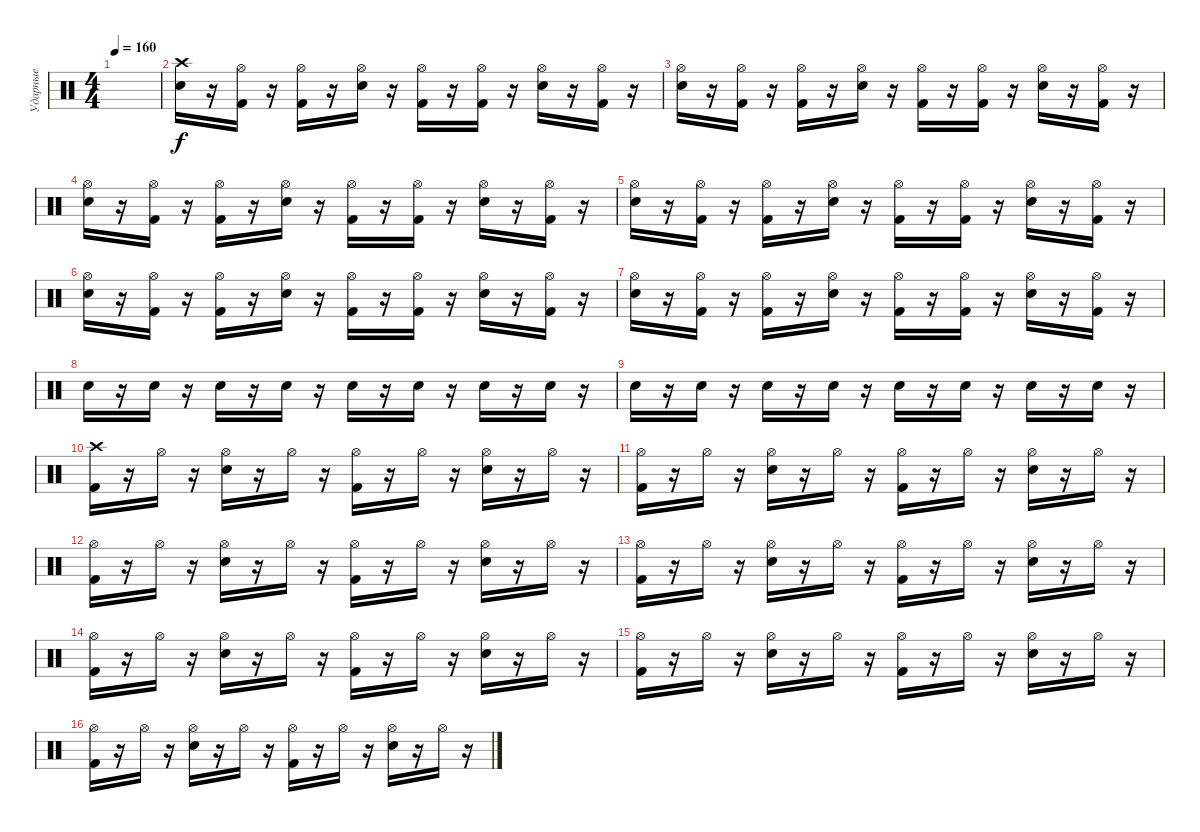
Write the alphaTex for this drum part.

\track ("Ударные" "Ударные") {instrument percussion}
\staff {score}
\articulation defaults
\ts (4 4)
\tempo 160
\clef neutral
\ks c
|
("Crash high (hit)" "Electric Snare (hit)").16 r.16 ("Hi-Hat (open)" "Kick (hit) 2").16 r.16 ("Hi-Hat (open)" "Kick (hit) 2").16 r.16 ("Hi-Hat (open)" "Electric Snare (hit)").16 r.16 ("Hi-Hat (open)" "Kick (hit) 2").16 r.16 ("Hi-Hat (open)" "Kick (hit) 2").16 r.16 ("Hi-Hat (open)" "Electric Snare (hit)").16 r.16 ("Hi-Hat (open)" "Kick (hit) 2").16 r.16 |
("Hi-Hat (open)" "Electric Snare (hit)").16 r.16 ("Hi-Hat (open)" "Kick (hit) 2").16 r.16 ("Hi-Hat (open)" "Kick (hit) 2").16 r.16 ("Hi-Hat (open)" "Electric Snare (hit)").16 r.16 ("Hi-Hat (open)" "Kick (hit) 2").16 r.16 ("Hi-Hat (open)" "Kick (hit) 2").16 r.16 ("Hi-Hat (open)" "Electric Snare (hit)").16 r.16 ("Hi-Hat (open)" "Kick (hit) 2").16 r.16 |
("Hi-Hat (open)" "Electric Snare (hit)").16 r.16 ("Hi-Hat (open)" "Kick (hit) 2").16 r.16 ("Hi-Hat (open)" "Kick (hit) 2").16 r.16 ("Hi-Hat (open)" "Electric Snare (hit)").16 r.16 ("Hi-Hat (open)" "Kick (hit) 2").16 r.16 ("Hi-Hat (open)" "Kick (hit) 2").16 r.16 ("Hi-Hat (open)" "Electric Snare (hit)").16 r.16 ("Hi-Hat (open)" "Kick (hit) 2").16 r.16 |
("Hi-Hat (open)" "Electric Snare (hit)").16 r.16 ("Hi-Hat (open)" "Kick (hit) 2").16 r.16 ("Hi-Hat (open)" "Kick (hit) 2").16 r.16 ("Hi-Hat (open)" "Electric Snare (hit)").16 r.16 ("Hi-Hat (open)" "Kick (hit) 2").16 r.16 ("Hi-Hat (open)" "Kick (hit) 2").16 r.16 ("Hi-Hat (open)" "Electric Snare (hit)").16 r.16 ("Hi-Hat (open)" "Kick (hit) 2").16 r.16 |
("Hi-Hat (open)" "Electric Snare (hit)").16 r.16 ("Hi-Hat (open)" "Kick (hit) 2").16 r.16 ("Hi-Hat (open)" "Kick (hit) 2").16 r.16 ("Hi-Hat (open)" "Electric Snare (hit)").16 r.16 ("Hi-Hat (open)" "Kick (hit) 2").16 r.16 ("Hi-Hat (open)" "Kick (hit) 2").16 r.16 ("Hi-Hat (open)" "Electric Snare (hit)").16 r.16 ("Hi-Hat (open)" "Kick (hit) 2").16 r.16 |
("Hi-Hat (open)" "Electric Snare (hit)").16 r.16 ("Hi-Hat (open)" "Kick (hit) 2").16 r.16 ("Hi-Hat (open)" "Kick (hit) 2").16 r.16 ("Hi-Hat (open)" "Electric Snare (hit)").16 r.16 ("Hi-Hat (open)" "Kick (hit) 2").16 r.16 ("Hi-Hat (open)" "Kick (hit) 2").16 r.16 ("Hi-Hat (open)" "Electric Snare (hit)").16 r.16 ("Hi-Hat (open)" "Kick (hit) 2").16 r.16 |
"Electric Snare (hit)".16 r.16 "Electric Snare (hit)".16 r.16 "Electric Snare (hit)".16 r.16 "Electric Snare (hit)".16 r.16 "Electric Snare (hit)".16 r.16 "Electric Snare (hit)".16 r.16 "Electric Snare (hit)".16 r.16 "Electric Snare (hit)".16 r.16 |
"Electric Snare (hit)".16 r.16 "Electric Snare (hit)".16 r.16 "Electric Snare (hit)".16 r.16 "Electric Snare (hit)".16 r.16 "Electric Snare (hit)".16 r.16 "Electric Snare (hit)".16 r.16 "Electric Snare (hit)".16 r.16 "Electric Snare (hit)".16 r.16 |
("Crash high (hit)" "Kick (hit) 2").16 r.16 "Hi-Hat (open)".16 r.16 ("Hi-Hat (open)" "Electric Snare (hit)").16 r.16 "Hi-Hat (open)".16 r.16 ("Hi-Hat (open)" "Kick (hit) 2").16 r.16 "Hi-Hat (open)".16 r.16 ("Hi-Hat (open)" "Electric Snare (hit)").16 r.16 "Hi-Hat (open)".16 r.16 |
("Hi-Hat (open)" "Kick (hit) 2").16 r.16 "Hi-Hat (open)".16 r.16 ("Hi-Hat (open)" "Electric Snare (hit)").16 r.16 "Hi-Hat (open)".16 r.16 ("Hi-Hat (open)" "Kick (hit) 2").16 r.16 "Hi-Hat (open)".16 r.16 ("Hi-Hat (open)" "Electric Snare (hit)").16 r.16 "Hi-Hat (open)".16 r.16 |
("Hi-Hat (open)" "Kick (hit) 2").16 r.16 "Hi-Hat (open)".16 r.16 ("Hi-Hat (open)" "Electric Snare (hit)").16 r.16 "Hi-Hat (open)".16 r.16 ("Hi-Hat (open)" "Kick (hit) 2").16 r.16 "Hi-Hat (open)".16 r.16 ("Hi-Hat (open)" "Electric Snare (hit)").16 r.16 "Hi-Hat (open)".16 r.16 |
("Hi-Hat (open)" "Kick (hit) 2").16 r.16 "Hi-Hat (open)".16 r.16 ("Hi-Hat (open)" "Electric Snare (hit)").16 r.16 "Hi-Hat (open)".16 r.16 ("Hi-Hat (open)" "Kick (hit) 2").16 r.16 "Hi-Hat (open)".16 r.16 ("Hi-Hat (open)" "Electric Snare (hit)").16 r.16 "Hi-Hat (open)".16 r.16 |
("Hi-Hat (open)" "Kick (hit) 2").16 r.16 "Hi-Hat (open)".16 r.16 ("Hi-Hat (open)" "Electric Snare (hit)").16 r.16 "Hi-Hat (open)".16 r.16 ("Hi-Hat (open)" "Kick (hit) 2").16 r.16 "Hi-Hat (open)".16 r.16 ("Hi-Hat (open)" "Electric Snare (hit)").16 r.16 "Hi-Hat (open)".16 r.16 |
("Hi-Hat (open)" "Kick (hit) 2").16 r.16 "Hi-Hat (open)".16 r.16 ("Hi-Hat (open)" "Electric Snare (hit)").16 r.16 "Hi-Hat (open)".16 r.16 ("Hi-Hat (open)" "Kick (hit) 2").16 r.16 "Hi-Hat (open)".16 r.16 ("Hi-Hat (open)" "Electric Snare (hit)").16 r.16 "Hi-Hat (open)".16 r.16 |
("Hi-Hat (open)" "Kick (hit) 2").16 r.16 "Hi-Hat (open)".16 r.16 ("Hi-Hat (open)" "Electric Snare (hit)").16 r.16 "Hi-Hat (open)".16 r.16 ("Hi-Hat (open)" "Kick (hit) 2").16 r.16 "Hi-Hat (open)".16 r.16 ("Hi-Hat (open)" "Electric Snare (hit)").16 r.16 "Hi-Hat (open)".16 r.16
